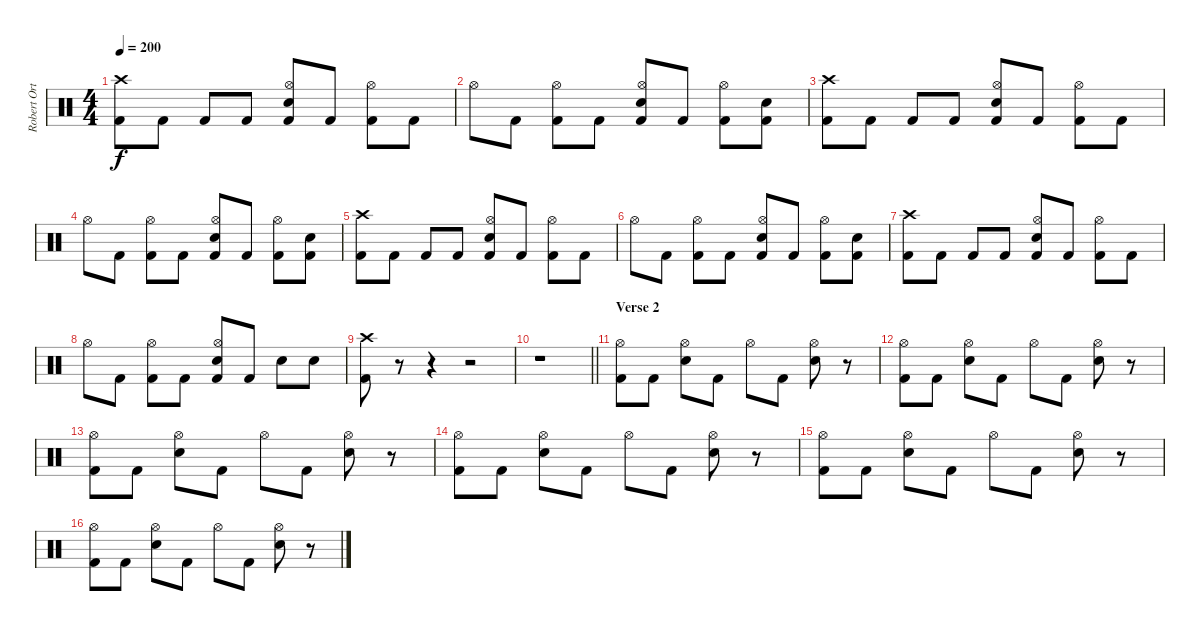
\track ("Robert Ortiz" "Robert Ort") {instrument percussion}
\staff {score}
\articulation defaults
\ts (4 4)
\tempo 200
\clef neutral
\ks c
("Crash high (hit)" "Kick (hit) 2").8{dy f volume 12} "Kick (hit) 2".8 "Kick (hit) 2".8 "Kick (hit) 2".8 ("Hi-Hat (open)" "Electric Snare (hit)" "Kick (hit) 2").8 "Kick (hit) 2".8 ("Hi-Hat (open)" "Kick (hit) 2").8 "Kick (hit) 2".8 |
"Hi-Hat (open)".8 "Kick (hit) 2".8 ("Hi-Hat (open)" "Kick (hit) 2").8 "Kick (hit) 2".8 ("Hi-Hat (open)" "Electric Snare (hit)" "Kick (hit) 2").8 "Kick (hit) 2".8 ("Hi-Hat (open)" "Kick (hit) 2").8 ("Electric Snare (hit)" "Kick (hit) 2").8 |
("Crash high (hit)" "Kick (hit) 2").8 "Kick (hit) 2".8 "Kick (hit) 2".8 "Kick (hit) 2".8 ("Hi-Hat (open)" "Electric Snare (hit)" "Kick (hit) 2").8 "Kick (hit) 2".8 ("Hi-Hat (open)" "Kick (hit) 2").8 "Kick (hit) 2".8 |
"Hi-Hat (open)".8 "Kick (hit) 2".8 ("Hi-Hat (open)" "Kick (hit) 2").8 "Kick (hit) 2".8 ("Hi-Hat (open)" "Electric Snare (hit)" "Kick (hit) 2").8 "Kick (hit) 2".8 ("Hi-Hat (open)" "Kick (hit) 2").8 ("Electric Snare (hit)" "Kick (hit) 2").8 |
("Crash high (hit)" "Kick (hit) 2").8 "Kick (hit) 2".8 "Kick (hit) 2".8 "Kick (hit) 2".8 ("Hi-Hat (open)" "Electric Snare (hit)" "Kick (hit) 2").8 "Kick (hit) 2".8 ("Hi-Hat (open)" "Kick (hit) 2").8 "Kick (hit) 2".8 |
"Hi-Hat (open)".8 "Kick (hit) 2".8 ("Hi-Hat (open)" "Kick (hit) 2").8 "Kick (hit) 2".8 ("Hi-Hat (open)" "Electric Snare (hit)" "Kick (hit) 2").8 "Kick (hit) 2".8 ("Hi-Hat (open)" "Kick (hit) 2").8 ("Electric Snare (hit)" "Kick (hit) 2").8 |
("Crash high (hit)" "Kick (hit) 2").8 "Kick (hit) 2".8 "Kick (hit) 2".8 "Kick (hit) 2".8 ("Hi-Hat (open)" "Electric Snare (hit)" "Kick (hit) 2").8 "Kick (hit) 2".8 ("Hi-Hat (open)" "Kick (hit) 2").8 "Kick (hit) 2".8 |
"Hi-Hat (open)".8 "Kick (hit) 2".8 ("Hi-Hat (open)" "Kick (hit) 2").8 "Kick (hit) 2".8 ("Hi-Hat (open)" "Electric Snare (hit)" "Kick (hit) 2").8 "Kick (hit) 2".8 "Electric Snare (hit)".8 "Electric Snare (hit)".8 |
("Crash high (hit)" "Kick (hit) 2").8 r.8 r.4 r.2 |
\barLineRight lightlight
r.1 |
\section ("" "Verse 2")
("Hi-Hat (open)" "Kick (hit) 2").8 "Kick (hit) 2".8 ("Hi-Hat (open)" "Electric Snare (hit)").8 "Kick (hit) 2".8 "Hi-Hat (open)".8 "Kick (hit) 2".8 ("Hi-Hat (open)" "Electric Snare (hit)").8 r.8 |
("Hi-Hat (open)" "Kick (hit) 2").8 "Kick (hit) 2".8 ("Hi-Hat (open)" "Electric Snare (hit)").8 "Kick (hit) 2".8 "Hi-Hat (open)".8 "Kick (hit) 2".8 ("Hi-Hat (open)" "Electric Snare (hit)").8 r.8 |
("Hi-Hat (open)" "Kick (hit) 2").8 "Kick (hit) 2".8 ("Hi-Hat (open)" "Electric Snare (hit)").8 "Kick (hit) 2".8 "Hi-Hat (open)".8 "Kick (hit) 2".8 ("Hi-Hat (open)" "Electric Snare (hit)").8 r.8 |
("Hi-Hat (open)" "Kick (hit) 2").8 "Kick (hit) 2".8 ("Hi-Hat (open)" "Electric Snare (hit)").8 "Kick (hit) 2".8 "Hi-Hat (open)".8 "Kick (hit) 2".8 ("Hi-Hat (open)" "Electric Snare (hit)").8 r.8 |
("Hi-Hat (open)" "Kick (hit) 2").8 "Kick (hit) 2".8 ("Hi-Hat (open)" "Electric Snare (hit)").8 "Kick (hit) 2".8 "Hi-Hat (open)".8 "Kick (hit) 2".8 ("Hi-Hat (open)" "Electric Snare (hit)").8 r.8 |
("Hi-Hat (open)" "Kick (hit) 2").8 "Kick (hit) 2".8 ("Hi-Hat (open)" "Electric Snare (hit)").8 "Kick (hit) 2".8 "Hi-Hat (open)".8 "Kick (hit) 2".8 ("Hi-Hat (open)" "Electric Snare (hit)").8 r.8
